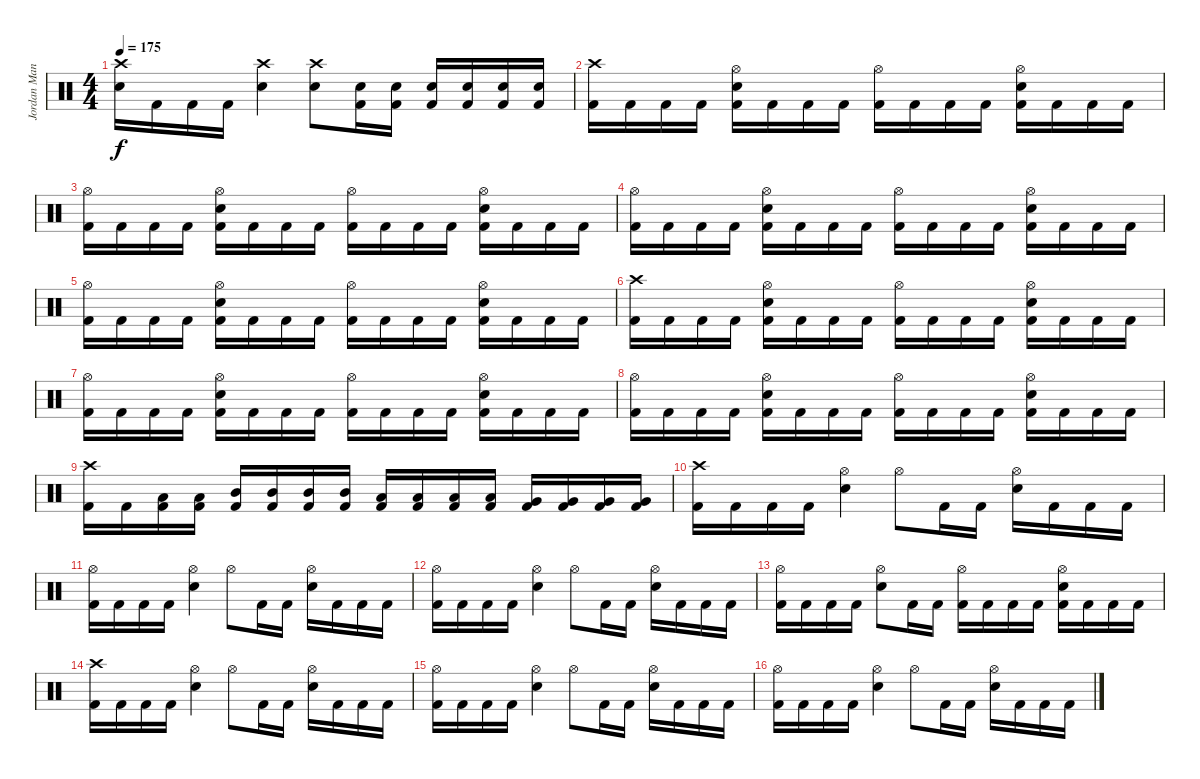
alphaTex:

\track ("Jordan Mancini" "Jordan Man") {instrument percussion}
\staff {score}
\articulation defaults
\ts (4 4)
\tempo 175
\clef neutral
\ks c
("Crash high (hit)" "Snare (hit) 2").16{dy f} "Kick (hit) 2".16 "Kick (hit) 2".16 "Kick (hit) 2".16 ("Crash high (hit)" "Snare (hit) 2").4 ("Crash high (hit)" "Snare (hit) 2").8 ("Snare (hit) 2" "Kick (hit) 2").16 ("Snare (hit) 2" "Kick (hit) 2").16 ("Snare (hit) 2" "Kick (hit) 2").16 ("Snare (hit) 2" "Kick (hit) 2").16 ("Snare (hit) 2" "Kick (hit) 2").16 ("Snare (hit) 2" "Kick (hit) 2").16 |
("Crash high (hit)" "Kick (hit) 2").16 "Kick (hit) 2".16 "Kick (hit) 2".16 "Kick (hit) 2".16 ("Hi-Hat (open)" "Snare (hit) 2" "Kick (hit) 2").16 "Kick (hit) 2".16 "Kick (hit) 2".16 "Kick (hit) 2".16 ("Hi-Hat (open)" "Kick (hit) 2").16 "Kick (hit) 2".16 "Kick (hit) 2".16 "Kick (hit) 2".16 ("Hi-Hat (open)" "Snare (hit) 2" "Kick (hit) 2").16 "Kick (hit) 2".16 "Kick (hit) 2".16 "Kick (hit) 2".16 |
("Hi-Hat (open)" "Kick (hit) 2").16 "Kick (hit) 2".16 "Kick (hit) 2".16 "Kick (hit) 2".16 ("Hi-Hat (open)" "Snare (hit) 2" "Kick (hit) 2").16 "Kick (hit) 2".16 "Kick (hit) 2".16 "Kick (hit) 2".16 ("Hi-Hat (open)" "Kick (hit) 2").16 "Kick (hit) 2".16 "Kick (hit) 2".16 "Kick (hit) 2".16 ("Hi-Hat (open)" "Snare (hit) 2" "Kick (hit) 2").16 "Kick (hit) 2".16 "Kick (hit) 2".16 "Kick (hit) 2".16 |
("Hi-Hat (open)" "Kick (hit) 2").16 "Kick (hit) 2".16 "Kick (hit) 2".16 "Kick (hit) 2".16 ("Hi-Hat (open)" "Snare (hit) 2" "Kick (hit) 2").16 "Kick (hit) 2".16 "Kick (hit) 2".16 "Kick (hit) 2".16 ("Hi-Hat (open)" "Kick (hit) 2").16 "Kick (hit) 2".16 "Kick (hit) 2".16 "Kick (hit) 2".16 ("Hi-Hat (open)" "Snare (hit) 2" "Kick (hit) 2").16 "Kick (hit) 2".16 "Kick (hit) 2".16 "Kick (hit) 2".16 |
("Hi-Hat (open)" "Kick (hit) 2").16 "Kick (hit) 2".16 "Kick (hit) 2".16 "Kick (hit) 2".16 ("Hi-Hat (open)" "Snare (hit) 2" "Kick (hit) 2").16 "Kick (hit) 2".16 "Kick (hit) 2".16 "Kick (hit) 2".16 ("Hi-Hat (open)" "Kick (hit) 2").16 "Kick (hit) 2".16 "Kick (hit) 2".16 "Kick (hit) 2".16 ("Hi-Hat (open)" "Snare (hit) 2" "Kick (hit) 2").16 "Kick (hit) 2".16 "Kick (hit) 2".16 "Kick (hit) 2".16 |
("Crash high (hit)" "Kick (hit) 2").16 "Kick (hit) 2".16 "Kick (hit) 2".16 "Kick (hit) 2".16 ("Hi-Hat (open)" "Snare (hit) 2" "Kick (hit) 2").16 "Kick (hit) 2".16 "Kick (hit) 2".16 "Kick (hit) 2".16 ("Hi-Hat (open)" "Kick (hit) 2").16 "Kick (hit) 2".16 "Kick (hit) 2".16 "Kick (hit) 2".16 ("Hi-Hat (open)" "Snare (hit) 2" "Kick (hit) 2").16 "Kick (hit) 2".16 "Kick (hit) 2".16 "Kick (hit) 2".16 |
("Hi-Hat (open)" "Kick (hit) 2").16 "Kick (hit) 2".16 "Kick (hit) 2".16 "Kick (hit) 2".16 ("Hi-Hat (open)" "Snare (hit) 2" "Kick (hit) 2").16 "Kick (hit) 2".16 "Kick (hit) 2".16 "Kick (hit) 2".16 ("Hi-Hat (open)" "Kick (hit) 2").16 "Kick (hit) 2".16 "Kick (hit) 2".16 "Kick (hit) 2".16 ("Hi-Hat (open)" "Snare (hit) 2" "Kick (hit) 2").16 "Kick (hit) 2".16 "Kick (hit) 2".16 "Kick (hit) 2".16 |
("Hi-Hat (open)" "Kick (hit) 2").16 "Kick (hit) 2".16 "Kick (hit) 2".16 "Kick (hit) 2".16 ("Hi-Hat (open)" "Snare (hit) 2" "Kick (hit) 2").16 "Kick (hit) 2".16 "Kick (hit) 2".16 "Kick (hit) 2".16 ("Hi-Hat (open)" "Kick (hit) 2").16 "Kick (hit) 2".16 "Kick (hit) 2".16 "Kick (hit) 2".16 ("Hi-Hat (open)" "Snare (hit) 2" "Kick (hit) 2").16 "Kick (hit) 2".16 "Kick (hit) 2".16 "Kick (hit) 2".16 |
("Crash high (hit)" "Kick (hit) 2").16 "Kick (hit) 2".16 ("Low Tom (hit)" "Kick (hit) 2").16 ("Low Tom (hit)" "Kick (hit) 2").16 ("Mid Tom (hit)" "Kick (hit) 2").16 ("Mid Tom (hit)" "Kick (hit) 2").16 ("Mid Tom (hit)" "Kick (hit) 2").16 ("Mid Tom (hit)" "Kick (hit) 2").16 ("Low Tom (hit)" "Kick (hit) 2").16 ("Low Tom (hit)" "Kick (hit) 2").16 ("Low Tom (hit)" "Kick (hit) 2").16 ("Low Tom (hit)" "Kick (hit) 2").16 ("Very Low Tom (hit)" "Kick (hit) 2").16 ("Very Low Tom (hit)" "Kick (hit) 2").16 ("Very Low Tom (hit)" "Kick (hit) 2").16 ("Very Low Tom (hit)" "Kick (hit) 2").16 |
("Crash high (hit)" "Kick (hit) 2").16 "Kick (hit) 2".16 "Kick (hit) 2".16 "Kick (hit) 2".16 ("Hi-Hat (open)" "Snare (hit) 2").4 "Hi-Hat (open)".8 "Kick (hit) 2".16 "Kick (hit) 2".16 ("Hi-Hat (open)" "Snare (hit) 2").16 "Kick (hit) 2".16 "Kick (hit) 2".16 "Kick (hit) 2".16 |
("Hi-Hat (open)" "Kick (hit) 2").16 "Kick (hit) 2".16 "Kick (hit) 2".16 "Kick (hit) 2".16 ("Hi-Hat (open)" "Snare (hit) 2").4 "Hi-Hat (open)".8 "Kick (hit) 2".16 "Kick (hit) 2".16 ("Hi-Hat (open)" "Snare (hit) 2").16 "Kick (hit) 2".16 "Kick (hit) 2".16 "Kick (hit) 2".16 |
("Hi-Hat (open)" "Kick (hit) 2").16 "Kick (hit) 2".16 "Kick (hit) 2".16 "Kick (hit) 2".16 ("Hi-Hat (open)" "Snare (hit) 2").4 "Hi-Hat (open)".8 "Kick (hit) 2".16 "Kick (hit) 2".16 ("Hi-Hat (open)" "Snare (hit) 2").16 "Kick (hit) 2".16 "Kick (hit) 2".16 "Kick (hit) 2".16 |
("Hi-Hat (open)" "Kick (hit) 2").16 "Kick (hit) 2".16 "Kick (hit) 2".16 "Kick (hit) 2".16 ("Hi-Hat (open)" "Snare (hit) 2").8 "Kick (hit) 2".16 "Kick (hit) 2".16 ("Hi-Hat (open)" "Kick (hit) 2").16 "Kick (hit) 2".16 "Kick (hit) 2".16 "Kick (hit) 2".16 ("Hi-Hat (open)" "Snare (hit) 2" "Kick (hit) 2").16 "Kick (hit) 2".16 "Kick (hit) 2".16 "Kick (hit) 2".16 |
("Crash high (hit)" "Kick (hit) 2").16 "Kick (hit) 2".16 "Kick (hit) 2".16 "Kick (hit) 2".16 ("Hi-Hat (open)" "Snare (hit) 2").4 "Hi-Hat (open)".8 "Kick (hit) 2".16 "Kick (hit) 2".16 ("Hi-Hat (open)" "Snare (hit) 2").16 "Kick (hit) 2".16 "Kick (hit) 2".16 "Kick (hit) 2".16 |
("Hi-Hat (open)" "Kick (hit) 2").16 "Kick (hit) 2".16 "Kick (hit) 2".16 "Kick (hit) 2".16 ("Hi-Hat (open)" "Snare (hit) 2").4 "Hi-Hat (open)".8 "Kick (hit) 2".16 "Kick (hit) 2".16 ("Hi-Hat (open)" "Snare (hit) 2").16 "Kick (hit) 2".16 "Kick (hit) 2".16 "Kick (hit) 2".16 |
("Hi-Hat (open)" "Kick (hit) 2").16 "Kick (hit) 2".16 "Kick (hit) 2".16 "Kick (hit) 2".16 ("Hi-Hat (open)" "Snare (hit) 2").4 "Hi-Hat (open)".8 "Kick (hit) 2".16 "Kick (hit) 2".16 ("Hi-Hat (open)" "Snare (hit) 2").16 "Kick (hit) 2".16 "Kick (hit) 2".16 "Kick (hit) 2".16
